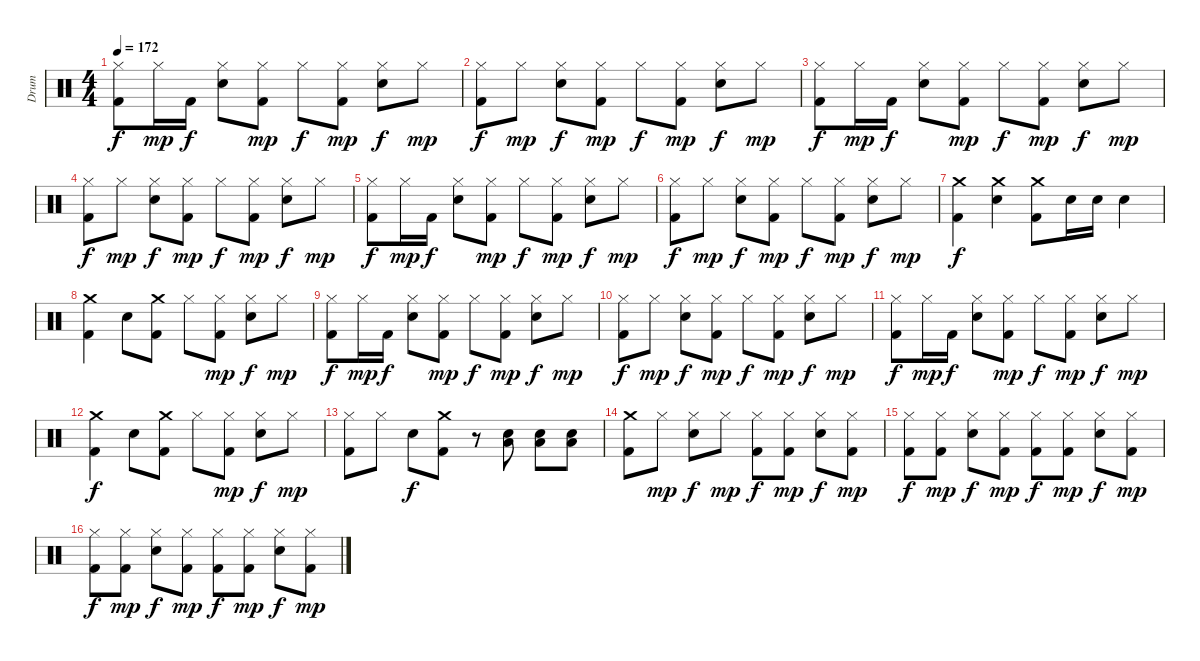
\track ("Drum" "Drum") {instrument percussion}
\staff {score}
\articulation defaults
\ts (4 4)
\tempo 172
\clef neutral
\ks c
("Hi-Hat (closed)" "Kick (hit) 2").8{dy f} "Hi-Hat (closed)".16{dy mp} "Kick (hit) 2".16{dy f} ("Hi-Hat (closed)" "Electric Snare (hit)").8 ("Hi-Hat (closed)" "Kick (hit) 2").8{dy mp} "Hi-Hat (closed)".8{dy f} ("Hi-Hat (closed)" "Kick (hit) 2").8{dy mp} ("Hi-Hat (closed)" "Electric Snare (hit)").8{dy f} "Hi-Hat (closed)".8{dy mp} |
("Hi-Hat (closed)" "Kick (hit) 2").8{dy f} "Hi-Hat (closed)".8{dy mp} ("Hi-Hat (closed)" "Electric Snare (hit)").8{dy f} ("Hi-Hat (closed)" "Kick (hit) 2").8{dy mp} "Hi-Hat (closed)".8{dy f} ("Hi-Hat (closed)" "Kick (hit) 2").8{dy mp} ("Hi-Hat (closed)" "Electric Snare (hit)").8{dy f} "Hi-Hat (closed)".8{dy mp} |
("Hi-Hat (closed)" "Kick (hit) 2").8{dy f} "Hi-Hat (closed)".16{dy mp} "Kick (hit) 2".16{dy f} ("Hi-Hat (closed)" "Electric Snare (hit)").8 ("Hi-Hat (closed)" "Kick (hit) 2").8{dy mp} "Hi-Hat (closed)".8{dy f} ("Hi-Hat (closed)" "Kick (hit) 2").8{dy mp} ("Hi-Hat (closed)" "Electric Snare (hit)").8{dy f} "Hi-Hat (closed)".8{dy mp} |
("Hi-Hat (closed)" "Kick (hit) 2").8{dy f} "Hi-Hat (closed)".8{dy mp} ("Hi-Hat (closed)" "Electric Snare (hit)").8{dy f} ("Hi-Hat (closed)" "Kick (hit) 2").8{dy mp} "Hi-Hat (closed)".8{dy f} ("Hi-Hat (closed)" "Kick (hit) 2").8{dy mp} ("Hi-Hat (closed)" "Electric Snare (hit)").8{dy f} "Hi-Hat (closed)".8{dy mp} |
("Hi-Hat (closed)" "Kick (hit) 2").8{dy f} "Hi-Hat (closed)".16{dy mp} "Kick (hit) 2".16{dy f} ("Hi-Hat (closed)" "Electric Snare (hit)").8 ("Hi-Hat (closed)" "Kick (hit) 2").8{dy mp} "Hi-Hat (closed)".8{dy f} ("Hi-Hat (closed)" "Kick (hit) 2").8{dy mp} ("Hi-Hat (closed)" "Electric Snare (hit)").8{dy f} "Hi-Hat (closed)".8{dy mp} |
("Hi-Hat (closed)" "Kick (hit) 2").8{dy f} "Hi-Hat (closed)".8{dy mp} ("Hi-Hat (closed)" "Electric Snare (hit)").8{dy f} ("Hi-Hat (closed)" "Kick (hit) 2").8{dy mp} "Hi-Hat (closed)".8{dy f} ("Hi-Hat (closed)" "Kick (hit) 2").8{dy mp} ("Hi-Hat (closed)" "Electric Snare (hit)").8{dy f} "Hi-Hat (closed)".8{dy mp} |
("Crash medium (hit)" "Kick (hit) 2").4{dy f} ("Crash medium (hit)" "Electric Snare (hit)").4 ("Crash medium (hit)" "Kick (hit) 2").8 "Electric Snare (hit)".16 "Electric Snare (hit)".16 "Electric Snare (hit)".4 |
("Crash medium (hit)" "Kick (hit) 2").4 "Electric Snare (hit)".8 ("Crash medium (hit)" "Kick (hit) 2").8 "Hi-Hat (closed)".8 ("Hi-Hat (closed)" "Kick (hit) 2").8{dy mp} ("Hi-Hat (closed)" "Electric Snare (hit)").8{dy f} "Hi-Hat (closed)".8{dy mp} |
("Hi-Hat (closed)" "Kick (hit) 2").8{dy f} "Hi-Hat (closed)".16{dy mp} "Kick (hit) 2".16{dy f} ("Hi-Hat (closed)" "Electric Snare (hit)").8 ("Hi-Hat (closed)" "Kick (hit) 2").8{dy mp} "Hi-Hat (closed)".8{dy f} ("Hi-Hat (closed)" "Kick (hit) 2").8{dy mp} ("Hi-Hat (closed)" "Electric Snare (hit)").8{dy f} "Hi-Hat (closed)".8{dy mp} |
("Hi-Hat (closed)" "Kick (hit) 2").8{dy f} "Hi-Hat (closed)".8{dy mp} ("Hi-Hat (closed)" "Electric Snare (hit)").8{dy f} ("Hi-Hat (closed)" "Kick (hit) 2").8{dy mp} "Hi-Hat (closed)".8{dy f} ("Hi-Hat (closed)" "Kick (hit) 2").8{dy mp} ("Hi-Hat (closed)" "Electric Snare (hit)").8{dy f} "Hi-Hat (closed)".8{dy mp} |
("Hi-Hat (closed)" "Kick (hit) 2").8{dy f} "Hi-Hat (closed)".16{dy mp} "Kick (hit) 2".16{dy f} ("Hi-Hat (closed)" "Electric Snare (hit)").8 ("Hi-Hat (closed)" "Kick (hit) 2").8{dy mp} "Hi-Hat (closed)".8{dy f} ("Hi-Hat (closed)" "Kick (hit) 2").8{dy mp} ("Hi-Hat (closed)" "Electric Snare (hit)").8{dy f} "Hi-Hat (closed)".8{dy mp} |
("Crash medium (hit)" "Kick (hit) 2").4{dy f} "Electric Snare (hit)".8 ("Crash medium (hit)" "Kick (hit) 2").8 "Hi-Hat (closed)".8 ("Hi-Hat (closed)" "Kick (hit) 2").8{dy mp} ("Hi-Hat (closed)" "Electric Snare (hit)").8{dy f} "Hi-Hat (closed)".8{dy mp} |
("Hi-Hat (closed)" "Kick (hit) 2").8 "Hi-Hat (closed)".8 "Electric Snare (hit)".8{dy f} ("Crash medium (hit)" "Kick (hit) 2").8 r.8 ("Electric Snare (hit)" "Low Tom (hit)").8 ("Electric Snare (hit)" "Low Tom (hit)").8 ("Electric Snare (hit)" "Low Tom (hit)").8 |
("Crash medium (hit)" "Kick (hit) 2").8 "Hi-Hat (closed)".8{dy mp} ("Hi-Hat (closed)" "Electric Snare (hit)").8{dy f} "Hi-Hat (closed)".8{dy mp} ("Hi-Hat (closed)" "Kick (hit) 2").8{dy f} ("Hi-Hat (closed)" "Kick (hit) 2").8{dy mp} ("Hi-Hat (closed)" "Electric Snare (hit)").8{dy f} ("Hi-Hat (closed)" "Kick (hit) 2").8{dy mp} |
("Hi-Hat (closed)" "Kick (hit) 2").8{dy f} ("Hi-Hat (closed)" "Kick (hit) 2").8{dy mp} ("Hi-Hat (closed)" "Electric Snare (hit)").8{dy f} ("Hi-Hat (closed)" "Kick (hit) 2").8{dy mp} ("Hi-Hat (closed)" "Kick (hit) 2").8{dy f} ("Hi-Hat (closed)" "Kick (hit) 2").8{dy mp} ("Hi-Hat (closed)" "Electric Snare (hit)").8{dy f} ("Hi-Hat (closed)" "Kick (hit) 2").8{dy mp} |
("Hi-Hat (closed)" "Kick (hit) 2").8{dy f} ("Hi-Hat (closed)" "Kick (hit) 2").8{dy mp} ("Hi-Hat (closed)" "Electric Snare (hit)").8{dy f} ("Hi-Hat (closed)" "Kick (hit) 2").8{dy mp} ("Hi-Hat (closed)" "Kick (hit) 2").8{dy f} ("Hi-Hat (closed)" "Kick (hit) 2").8{dy mp} ("Hi-Hat (closed)" "Electric Snare (hit)").8{dy f} ("Hi-Hat (closed)" "Kick (hit) 2").8{dy mp}
